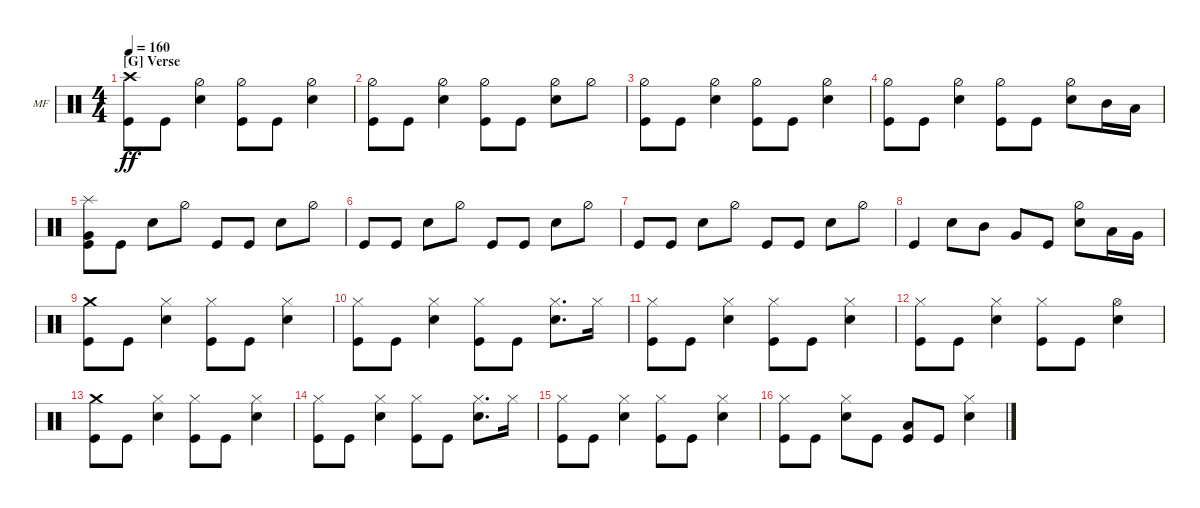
\defaultSystemsLayout 4
\bracketExtendMode groupsimilarinstruments
\firstSystemTrackNameOrientation horizontal
\otherSystemsTrackNameOrientation horizontal
\track ("Mike Felumlee - Drums" "MF") {instrument percussion}
\staff {score}
\articulation defaults
\ts (4 4)
\section ("G" "Verse")
\tempo 160
\clef neutral
\ks c
("Crash high (hit)" "Kick (hit)").8{dy ff} "Kick (hit)".8 ("Snare (hit) 2" "Hi-Hat (half)").4 ("Kick (hit)" "Hi-Hat (half)").8 "Kick (hit)".8 ("Snare (hit) 2" "Hi-Hat (half)").4 |
("Kick (hit)" "Hi-Hat (half)").8 "Kick (hit)".8 ("Snare (hit) 2" "Hi-Hat (half)").4 ("Kick (hit)" "Hi-Hat (half)").8 "Kick (hit)".8 ("Snare (hit) 2" "Hi-Hat (half)").8 "Hi-Hat (half)".8 |
("Kick (hit)" "Hi-Hat (half)").8 "Kick (hit)".8 ("Snare (hit) 2" "Hi-Hat (half)").4 ("Kick (hit)" "Hi-Hat (half)").8 "Kick (hit)".8 ("Snare (hit) 2" "Hi-Hat (half)").4 |
("Kick (hit)" "Hi-Hat (half)").8 "Kick (hit)".8 ("Snare (hit) 2" "Hi-Hat (half)").4 ("Kick (hit)" "Hi-Hat (half)").8 "Kick (hit)".8 ("Snare (hit) 2" "Hi-Hat (half)").8 "Mid Tom (hit)".16 "Low Tom (hit)".16 |
("Very Low Tom (hit)" "Kick (hit)" "Splash (hit)").8 "Kick (hit)".8 "Snare (hit) 2".8 "Hi-Hat (half)".8 "Kick (hit)".8 "Kick (hit)".8 "Snare (hit) 2".8 "Hi-Hat (half)".8 |
"Kick (hit)".8 "Kick (hit)".8 "Snare (hit) 2".8 "Hi-Hat (half)".8 "Kick (hit)".8 "Kick (hit)".8 "Snare (hit) 2".8 "Hi-Hat (half)".8 |
"Kick (hit)".8 "Kick (hit)".8 "Snare (hit) 2".8 "Hi-Hat (half)".8 "Kick (hit)".8 "Kick (hit)".8 "Snare (hit) 2".8 "Hi-Hat (half)".8 |
"Kick (hit)".4 "Snare (hit) 2".8 "Mid Tom (hit)".8 "Very Low Tom (hit)".8 "Kick (hit)".8 ("Snare (hit) 2" "Hi-Hat (half)").8 "Low Tom (hit)".16 "Very Low Tom (hit)".16 |
("Crash medium (hit)" "Kick (hit)").8 "Kick (hit)".8 ("Snare (hit) 2" "Hi-Hat (closed)").4 ("Kick (hit)" "Hi-Hat (closed)").8 "Kick (hit)".8 ("Snare (hit) 2" "Hi-Hat (closed)").4 |
("Kick (hit)" "Hi-Hat (closed)").8 "Kick (hit)".8 ("Snare (hit) 2" "Hi-Hat (closed)").4 ("Kick (hit)" "Hi-Hat (closed)").8 "Kick (hit)".8 ("Snare (hit) 2" "Hi-Hat (closed)").8{d} "Hi-Hat (closed)".16 |
("Kick (hit)" "Hi-Hat (closed)").8 "Kick (hit)".8 ("Snare (hit) 2" "Hi-Hat (closed)").4 ("Kick (hit)" "Hi-Hat (closed)").8 "Kick (hit)".8 ("Snare (hit) 2" "Hi-Hat (closed)").4 |
("Kick (hit)" "Hi-Hat (closed)").8 "Kick (hit)".8 ("Snare (hit) 2" "Hi-Hat (closed)").4 ("Kick (hit)" "Hi-Hat (closed)").8 "Kick (hit)".8 ("Snare (hit) 2" "Hi-Hat (open)").4 |
("Crash medium (hit)" "Kick (hit)").8 "Kick (hit)".8 ("Snare (hit) 2" "Hi-Hat (closed)").4 ("Kick (hit)" "Hi-Hat (closed)").8 "Kick (hit)".8 ("Snare (hit) 2" "Hi-Hat (closed)").4 |
("Kick (hit)" "Hi-Hat (closed)").8 "Kick (hit)".8 ("Snare (hit) 2" "Hi-Hat (closed)").4 ("Kick (hit)" "Hi-Hat (closed)").8 "Kick (hit)".8 ("Snare (hit) 2" "Hi-Hat (closed)").8{d} "Hi-Hat (closed)".16 |
("Kick (hit)" "Hi-Hat (closed)").8 "Kick (hit)".8 ("Snare (hit) 2" "Hi-Hat (closed)").4 ("Kick (hit)" "Hi-Hat (closed)").8 "Kick (hit)".8 ("Snare (hit) 2" "Hi-Hat (closed)").4 |
("Kick (hit)" "Hi-Hat (closed)").8 "Kick (hit)".8 ("Snare (hit) 2" "Hi-Hat (closed)").8 "Kick (hit)".8 ("Kick (hit)" "Low Tom (hit)").8 "Kick (hit)".8 ("Snare (hit) 2" "Hi-Hat (closed)").4
